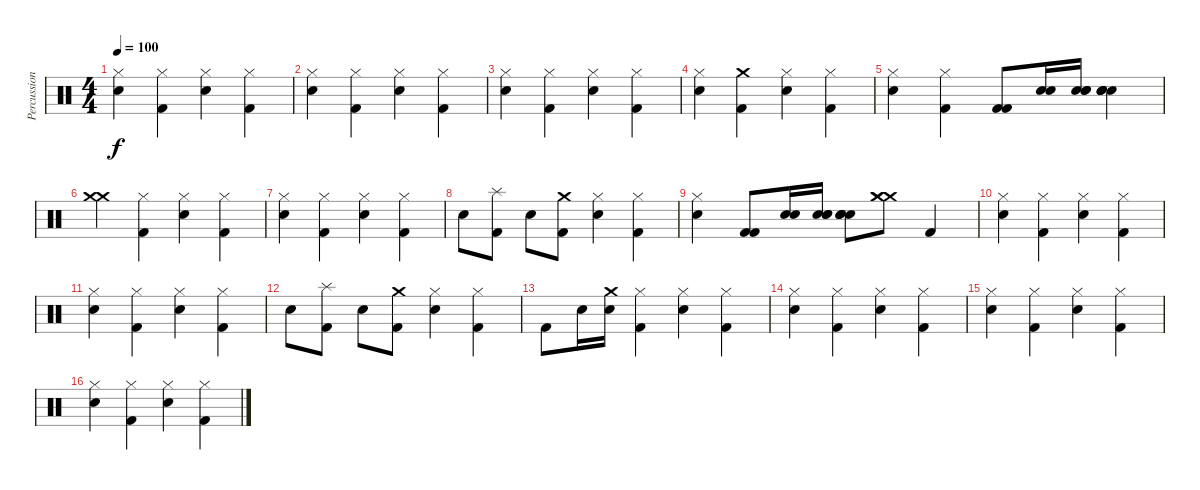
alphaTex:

\track ("Percussion" "Percussion") {instrument percussion}
\staff {score}
\articulation defaults
\ts (4 4)
\tempo 100
\clef neutral
\ks c
("Hi-Hat (closed)" "Electric Snare (hit)").4{dy f} ("Hi-Hat (closed)" "Kick (hit) 2").4 ("Hi-Hat (closed)" "Electric Snare (hit)").4 ("Hi-Hat (closed)" "Kick (hit) 2").4 |
("Hi-Hat (closed)" "Electric Snare (hit)").4 ("Hi-Hat (closed)" "Kick (hit) 2").4 ("Hi-Hat (closed)" "Electric Snare (hit)").4 ("Hi-Hat (closed)" "Kick (hit) 2").4 |
("Hi-Hat (closed)" "Electric Snare (hit)").4 ("Hi-Hat (closed)" "Kick (hit) 2").4 ("Hi-Hat (closed)" "Electric Snare (hit)").4 ("Hi-Hat (closed)" "Kick (hit) 2").4 |
("Hi-Hat (closed)" "Electric Snare (hit)").4 ("Crash medium (hit)" "Kick (hit) 2").4 ("Hi-Hat (closed)" "Electric Snare (hit)").4 ("Hi-Hat (closed)" "Kick (hit) 2").4 |
("Hi-Hat (closed)" "Electric Snare (hit)").4 ("Hi-Hat (closed)" "Kick (hit) 2").4 ("Kick (hit) 2" "Kick (hit) 2").8 ("Electric Snare (hit)" "Electric Snare (hit)").16 ("Electric Snare (hit)" "Electric Snare (hit)" "Electric Snare (hit)").16 ("Electric Snare (hit)" "Electric Snare (hit)" "Electric Snare (hit)" "Electric Snare (hit)").4 |
("Crash medium (hit)" "Crash medium (hit)").4 ("Hi-Hat (closed)" "Kick (hit) 2").4 ("Hi-Hat (closed)" "Electric Snare (hit)").4 ("Hi-Hat (closed)" "Kick (hit) 2").4 |
("Hi-Hat (closed)" "Electric Snare (hit)").4 ("Hi-Hat (closed)" "Kick (hit) 2").4 ("Hi-Hat (closed)" "Electric Snare (hit)").4 ("Hi-Hat (closed)" "Kick (hit) 2").4 |
"Electric Snare (hit)".8 ("Splash (hit)" "Kick (hit) 2").8 "Electric Snare (hit)".8 ("Crash medium (hit)" "Kick (hit) 2").8 ("Hi-Hat (closed)" "Electric Snare (hit)").4 ("Hi-Hat (closed)" "Kick (hit) 2").4 |
("Electric Snare (hit)" "Hi-Hat (closed)").4 ("Kick (hit) 2" "Kick (hit) 2").8 ("Electric Snare (hit)" "Electric Snare (hit)").16 ("Electric Snare (hit)" "Electric Snare (hit)" "Electric Snare (hit)").16 ("Electric Snare (hit)" "Electric Snare (hit)" "Electric Snare (hit)" "Electric Snare (hit)").8 ("Crash medium (hit)" "Crash medium (hit)" "Crash medium (hit)").8 "Kick (hit) 2".4 |
("Hi-Hat (closed)" "Electric Snare (hit)").4 ("Hi-Hat (closed)" "Kick (hit) 2").4 ("Hi-Hat (closed)" "Electric Snare (hit)").4 ("Hi-Hat (closed)" "Kick (hit) 2").4 |
("Hi-Hat (closed)" "Electric Snare (hit)").4 ("Hi-Hat (closed)" "Kick (hit) 2").4 ("Hi-Hat (closed)" "Electric Snare (hit)").4 ("Hi-Hat (closed)" "Kick (hit) 2").4 |
"Electric Snare (hit)".8 ("Splash (hit)" "Kick (hit) 2").8 "Electric Snare (hit)".8 ("Crash medium (hit)" "Kick (hit) 2").8 ("Hi-Hat (closed)" "Electric Snare (hit)").4 ("Hi-Hat (closed)" "Kick (hit) 2").4 |
"Kick (hit) 2".8 "Snare (hit) 2".16 ("Crash medium (hit)" "Electric Snare (hit)").16 ("Hi-Hat (closed)" "Kick (hit) 2").4 ("Hi-Hat (closed)" "Electric Snare (hit)").4 ("Hi-Hat (closed)" "Kick (hit) 2").4 |
("Hi-Hat (closed)" "Electric Snare (hit)").4 ("Hi-Hat (closed)" "Kick (hit) 2").4 ("Hi-Hat (closed)" "Electric Snare (hit)").4 ("Hi-Hat (closed)" "Kick (hit) 2").4 |
("Hi-Hat (closed)" "Electric Snare (hit)").4 ("Hi-Hat (closed)" "Kick (hit) 2").4 ("Hi-Hat (closed)" "Electric Snare (hit)").4 ("Hi-Hat (closed)" "Kick (hit) 2").4 |
("Hi-Hat (closed)" "Electric Snare (hit)").4 ("Hi-Hat (closed)" "Kick (hit) 2").4 ("Hi-Hat (closed)" "Electric Snare (hit)").4 ("Hi-Hat (closed)" "Kick (hit) 2").4
